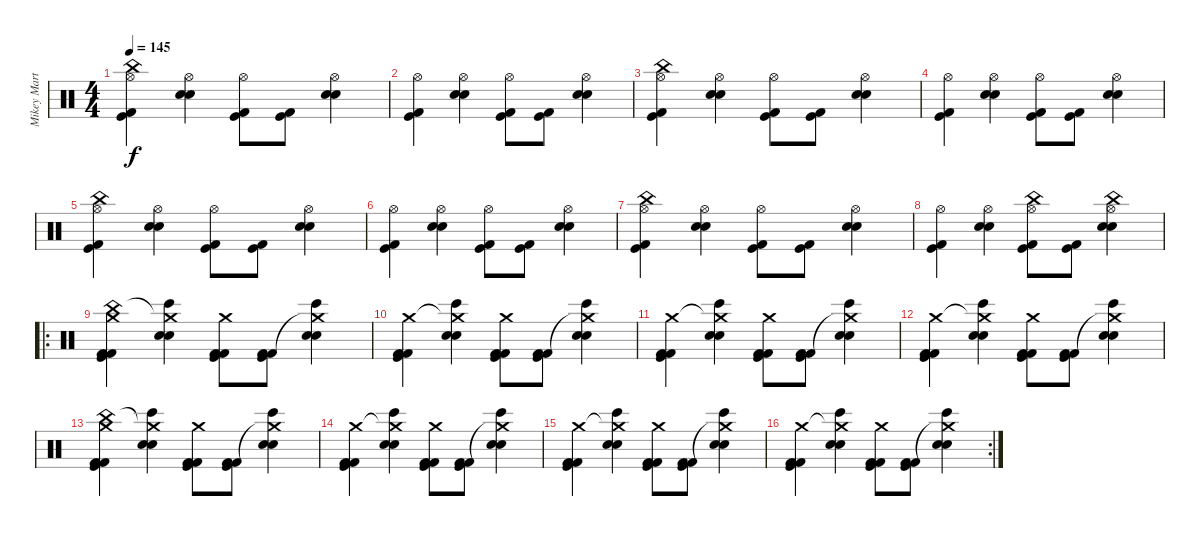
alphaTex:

\track ("Mikey Martin" "Mikey Mart") {instrument percussion}
\staff {score}
\articulation defaults
\ts (4 4)
\tempo 145
\clef neutral
\ks c
("China (hit)" "Hi-Hat (open)" "Kick (hit)" "Kick (hit) 2").4{dy f} ("Hi-Hat (open)" "Snare (hit) 2" "Electric Snare (hit)").4 ("Hi-Hat (open)" "Kick (hit)" "Kick (hit) 2").8 ("Kick (hit)" "Kick (hit) 2").8 ("Hi-Hat (open)" "Snare (hit) 2" "Electric Snare (hit)").4 |
("Hi-Hat (open)" "Kick (hit)" "Kick (hit) 2").4 ("Hi-Hat (open)" "Snare (hit) 2" "Electric Snare (hit)").4 ("Hi-Hat (open)" "Kick (hit)" "Kick (hit) 2").8 ("Kick (hit)" "Kick (hit) 2").8 ("Hi-Hat (open)" "Snare (hit) 2" "Electric Snare (hit)").4 |
("China (hit)" "Hi-Hat (open)" "Kick (hit)" "Kick (hit) 2").4 ("Hi-Hat (open)" "Snare (hit) 2" "Electric Snare (hit)").4 ("Hi-Hat (open)" "Kick (hit)" "Kick (hit) 2").8 ("Kick (hit)" "Kick (hit) 2").8 ("Hi-Hat (open)" "Snare (hit) 2" "Electric Snare (hit)").4 |
("Hi-Hat (open)" "Kick (hit)" "Kick (hit) 2").4 ("Hi-Hat (open)" "Snare (hit) 2" "Electric Snare (hit)").4 ("Hi-Hat (open)" "Kick (hit)" "Kick (hit) 2").8 ("Kick (hit)" "Kick (hit) 2").8 ("Hi-Hat (open)" "Snare (hit) 2" "Electric Snare (hit)").4 |
("China (hit)" "Hi-Hat (open)" "Kick (hit)" "Kick (hit) 2").4 ("Hi-Hat (open)" "Snare (hit) 2" "Electric Snare (hit)").4 ("Hi-Hat (open)" "Kick (hit)" "Kick (hit) 2").8 ("Kick (hit)" "Kick (hit) 2").8 ("Hi-Hat (open)" "Snare (hit) 2" "Electric Snare (hit)").4 |
("Hi-Hat (open)" "Kick (hit)" "Kick (hit) 2").4 ("Hi-Hat (open)" "Snare (hit) 2" "Electric Snare (hit)").4 ("Hi-Hat (open)" "Kick (hit)" "Kick (hit) 2").8 ("Kick (hit)" "Kick (hit) 2").8 ("Hi-Hat (open)" "Snare (hit) 2" "Electric Snare (hit)").4 |
("China (hit)" "Hi-Hat (open)" "Kick (hit)" "Kick (hit) 2").4 ("Hi-Hat (open)" "Snare (hit) 2" "Electric Snare (hit)").4 ("Hi-Hat (open)" "Kick (hit)" "Kick (hit) 2").8 ("Kick (hit)" "Kick (hit) 2").8 ("Hi-Hat (open)" "Snare (hit) 2" "Electric Snare (hit)").4 |
("Hi-Hat (open)" "Kick (hit)" "Kick (hit) 2").4 ("Hi-Hat (open)" "Snare (hit) 2" "Electric Snare (hit)").4 ("China (hit)" "Hi-Hat (open)" "Kick (hit)" "Kick (hit) 2").8 ("Kick (hit)" "Kick (hit) 2").8 ("China (hit)" "Hi-Hat (open)" "Snare (hit) 2" "Electric Snare (hit)").4 |
\ro
("China (hit)" "Crash medium (hit)" "Kick (hit)" "Kick (hit) 2" "Kick (hit) 2").4 ("Crash medium (hit)"{t} "Bongo High (hit)" "Snare (hit) 2" "Electric Snare (hit)").4 ("Crash medium (hit)" "Kick (hit)" "Kick (hit) 2" "Kick (hit) 2").8 ("Kick (hit)" "Kick (hit) 2" "Kick (hit) 2").8 ("Crash medium (hit)"{t} "Bongo High (hit)" "Snare (hit) 2" "Electric Snare (hit)").4 |
("Crash medium (hit)" "Kick (hit)" "Kick (hit) 2" "Kick (hit) 2").4 ("Crash medium (hit)"{t} "Bongo High (hit)" "Snare (hit) 2" "Electric Snare (hit)").4 ("Crash medium (hit)" "Kick (hit)" "Kick (hit) 2" "Kick (hit) 2").8 ("Kick (hit)" "Kick (hit) 2" "Kick (hit) 2").8 ("Crash medium (hit)"{t} "Bongo High (hit)" "Snare (hit) 2" "Electric Snare (hit)").4 |
("Crash medium (hit)" "Kick (hit)" "Kick (hit) 2" "Kick (hit) 2").4 ("Crash medium (hit)"{t} "Bongo High (hit)" "Snare (hit) 2" "Electric Snare (hit)").4 ("Crash medium (hit)" "Kick (hit)" "Kick (hit) 2" "Kick (hit) 2").8 ("Kick (hit)" "Kick (hit) 2" "Kick (hit) 2").8 ("Crash medium (hit)"{t} "Bongo High (hit)" "Snare (hit) 2" "Electric Snare (hit)").4 |
("Crash medium (hit)" "Kick (hit)" "Kick (hit) 2" "Kick (hit) 2").4 ("Crash medium (hit)"{t} "Bongo High (hit)" "Snare (hit) 2" "Electric Snare (hit)").4 ("Crash medium (hit)" "Kick (hit)" "Kick (hit) 2" "Kick (hit) 2").8 ("Kick (hit)" "Kick (hit) 2" "Kick (hit) 2").8 ("Crash medium (hit)"{t} "Bongo High (hit)" "Snare (hit) 2" "Electric Snare (hit)").4 |
("China (hit)" "Crash medium (hit)" "Kick (hit)" "Kick (hit) 2" "Kick (hit) 2").4 ("Crash medium (hit)"{t} "Bongo High (hit)" "Snare (hit) 2" "Electric Snare (hit)").4 ("Crash medium (hit)" "Kick (hit)" "Kick (hit) 2" "Kick (hit) 2").8 ("Kick (hit)" "Kick (hit) 2" "Kick (hit) 2").8 ("Crash medium (hit)"{t} "Bongo High (hit)" "Snare (hit) 2" "Electric Snare (hit)").4 |
("Crash medium (hit)" "Kick (hit)" "Kick (hit) 2" "Kick (hit) 2").4 ("Crash medium (hit)"{t} "Bongo High (hit)" "Snare (hit) 2" "Electric Snare (hit)").4 ("Crash medium (hit)" "Kick (hit)" "Kick (hit) 2" "Kick (hit) 2").8 ("Kick (hit)" "Kick (hit) 2" "Kick (hit) 2").8 ("Crash medium (hit)"{t} "Bongo High (hit)" "Snare (hit) 2" "Electric Snare (hit)").4 |
("Crash medium (hit)" "Kick (hit)" "Kick (hit) 2" "Kick (hit) 2").4 ("Crash medium (hit)"{t} "Bongo High (hit)" "Snare (hit) 2" "Electric Snare (hit)").4 ("Crash medium (hit)" "Kick (hit)" "Kick (hit) 2" "Kick (hit) 2").8 ("Kick (hit)" "Kick (hit) 2" "Kick (hit) 2").8 ("Crash medium (hit)"{t} "Bongo High (hit)" "Snare (hit) 2" "Electric Snare (hit)").4 |
\rc 2
("Crash medium (hit)" "Kick (hit)" "Kick (hit) 2" "Kick (hit) 2").4 ("Crash medium (hit)"{t} "Bongo High (hit)" "Snare (hit) 2" "Electric Snare (hit)").4 ("Crash medium (hit)" "Kick (hit)" "Kick (hit) 2" "Kick (hit) 2").8 ("Kick (hit)" "Kick (hit) 2" "Kick (hit) 2").8 ("Crash medium (hit)"{t} "Bongo High (hit)" "Snare (hit) 2" "Electric Snare (hit)").4
